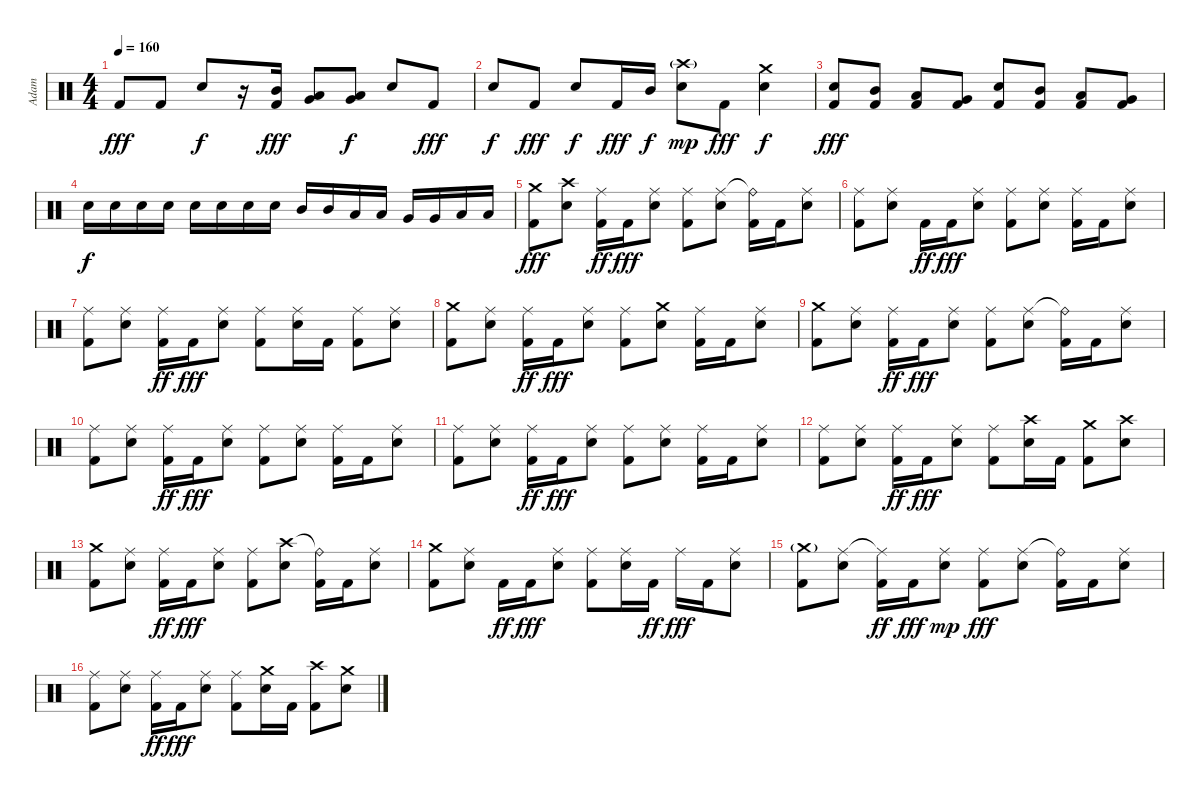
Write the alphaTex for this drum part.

\track ("Adam" "Adam") {instrument percussion}
\staff {score}
\articulation defaults
\ts (4 4)
\tempo 160
\clef neutral
\ks c "Kick (hit) 2".8{dy fff} "Kick (hit) 2".8 "Electric Snare (hit)".8{dy f}
r.16 ("Mid Tom (hit)" "Kick (hit) 2").16{dy fff} ("Low Tom (hit)" "Very Low Tom (hit)").8 ("Low Tom (hit)" "Very Low Tom (hit)").8{dy f} "Electric Snare (hit)".8 "Kick (hit) 2".8{dy fff} |
"Electric Snare (hit)".8{dy f} "Kick (hit) 2".8{dy fff} "Electric Snare (hit)".8{dy f} "Kick (hit) 2".16{dy fff} "Mid Tom (hit)".16{dy f} ("Crash high (hit)"{g} "Electric Snare (hit)").8{dy mp} "Kick (hit) 2".8{dy fff} ("Crash medium (hit)" "Electric Snare (hit)").4{dy f} |
("Electric Snare (hit)" "Kick (hit) 2").8{dy fff} ("Mid Tom (hit)" "Kick (hit) 2").8 ("Low Tom (hit)" "Kick (hit) 2").8 ("Very Low Tom (hit)" "Kick (hit) 2").8 ("Electric Snare (hit)" "Kick (hit) 2").8 ("Mid Tom (hit)" "Kick (hit) 2").8 ("Low Tom (hit)" "Kick (hit) 2").8 ("Very Low Tom (hit)" "Kick (hit) 2").8 |
"Electric Snare (hit)".16{dy f} "Electric Snare (hit)".16 "Electric Snare (hit)".16 "Electric Snare (hit)".16 "Electric Snare (hit)".16 "Electric Snare (hit)".16 "Electric Snare (hit)".16 "Electric Snare (hit)".16 "Mid Tom (hit)".16 "Mid Tom (hit)".16 "Low Tom (hit)".16 "Low Tom (hit)".16 "Very Low Tom (hit)".16 "Very Low Tom (hit)".16 "Low Floor Tom (hit)".16 "Low Floor Tom (hit)".16 |
("Crash medium (hit)" "Kick (hit) 2").8{dy fff} ("Crash high (hit)" "Electric Snare (hit)").8 ("Ride (middle)" "Kick (hit) 2").16{dy ff} "Kick (hit) 2".16{dy fff} ("Ride (middle)" "Electric Snare (hit)").8 ("Ride (middle)" "Kick (hit) 2").8 ("Ride (middle)" "Electric Snare (hit)").8 ("Ride (bell)"{t} "Kick (hit) 2").16 "Kick (hit) 2".16 ("Ride (middle)" "Electric Snare (hit)").8 |
("Ride (middle)" "Kick (hit) 2").8 ("Ride (middle)" "Electric Snare (hit)").8 "Kick (hit) 2".16{dy ff} "Kick (hit) 2".16{dy fff} ("Ride (middle)" "Electric Snare (hit)").8 ("Ride (middle)" "Kick (hit) 2").8 ("Ride (middle)" "Electric Snare (hit)").8 ("Ride (middle)" "Kick (hit) 2").16 "Kick (hit) 2".16 ("Ride (middle)" "Electric Snare (hit)").8 |
("Ride (middle)" "Kick (hit) 2").8 ("Ride (middle)" "Electric Snare (hit)").8 ("Ride (middle)" "Kick (hit) 2").16{dy ff} "Kick (hit) 2".16{dy fff} ("Ride (middle)" "Electric Snare (hit)").8 ("Ride (middle)" "Kick (hit) 2").8 ("Ride (middle)" "Electric Snare (hit)").16 "Kick (hit) 2".16 ("Ride (middle)" "Kick (hit) 2").8 ("Ride (middle)" "Electric Snare (hit)").8 |
("Crash medium (hit)" "Kick (hit) 2").8 ("Ride (middle)" "Electric Snare (hit)").8 ("Ride (middle)" "Kick (hit) 2").16{dy ff} "Kick (hit) 2".16{dy fff} ("Ride (middle)" "Electric Snare (hit)").8 ("Ride (middle)" "Kick (hit) 2").8 ("Crash medium (hit)" "Electric Snare (hit)").8 ("Ride (middle)" "Kick (hit) 2").16 "Kick (hit) 2".16 ("Ride (middle)" "Electric Snare (hit)").8 |
("Crash medium (hit)" "Kick (hit) 2").8 ("Ride (middle)" "Electric Snare (hit)").8 ("Ride (middle)" "Kick (hit) 2").16{dy ff} "Kick (hit) 2".16{dy fff} ("Ride (middle)" "Electric Snare (hit)").8 ("Ride (middle)" "Kick (hit) 2").8 ("Ride (middle)" "Electric Snare (hit)").8 ("Ride (bell)"{t} "Kick (hit) 2").16 "Kick (hit) 2".16 ("Ride (middle)" "Electric Snare (hit)").8 |
("Ride (middle)" "Kick (hit) 2").8 ("Ride (middle)" "Electric Snare (hit)").8 ("Ride (middle)" "Kick (hit) 2").16{dy ff} "Kick (hit) 2".16{dy fff} ("Ride (middle)" "Electric Snare (hit)").8 ("Ride (middle)" "Kick (hit) 2").8 ("Ride (middle)" "Electric Snare (hit)").8 ("Ride (middle)" "Kick (hit) 2").16 "Kick (hit) 2".16 ("Ride (middle)" "Electric Snare (hit)").8 |
("Ride (middle)" "Kick (hit) 2").8 ("Ride (middle)" "Electric Snare (hit)").8 ("Ride (middle)" "Kick (hit) 2").16{dy ff} "Kick (hit) 2".16{dy fff} ("Ride (middle)" "Electric Snare (hit)").8 ("Ride (middle)" "Kick (hit) 2").8 ("Ride (middle)" "Electric Snare (hit)").8 ("Ride (middle)" "Kick (hit) 2").16 "Kick (hit) 2".16 ("Ride (middle)" "Electric Snare (hit)").8 |
("Ride (middle)" "Kick (hit) 2").8 ("Ride (middle)" "Electric Snare (hit)").8 ("Ride (middle)" "Kick (hit) 2").16{dy ff} "Kick (hit) 2".16{dy fff} ("Ride (middle)" "Electric Snare (hit)").8 ("Ride (middle)" "Kick (hit) 2").8 ("Crash high (hit)" "Electric Snare (hit)").16 "Kick (hit) 2".16 ("Crash medium (hit)" "Kick (hit) 2").8 ("Crash high (hit)" "Electric Snare (hit)").8 |
("Crash medium (hit)" "Kick (hit) 2").8 ("Ride (middle)" "Electric Snare (hit)").8 ("Ride (middle)" "Kick (hit) 2").16{dy ff} "Kick (hit) 2".16{dy fff} ("Ride (middle)" "Electric Snare (hit)").8 ("Ride (middle)" "Kick (hit) 2").8 ("Crash high (hit)" "Electric Snare (hit)").8 ("Ride (bell)"{t} "Kick (hit) 2").16 "Kick (hit) 2".16 ("Ride (middle)" "Electric Snare (hit)").8 |
("Crash medium (hit)" "Kick (hit) 2").8 ("Ride (middle)" "Electric Snare (hit)").8 "Kick (hit) 2".16{dy ff} "Kick (hit) 2".16{dy fff} ("Ride (middle)" "Electric Snare (hit)").8 ("Ride (middle)" "Kick (hit) 2").8 ("Ride (middle)" "Electric Snare (hit)").16 "Kick (hit) 2".16{dy ff} "Ride (middle)".16{dy fff} "Kick (hit) 2".16 ("Ride (middle)" "Electric Snare (hit)").8 |
("Crash medium (hit)"{g} "Kick (hit) 2").8 ("Ride (middle)" "Electric Snare (hit)").8 ("Ride (middle)"{t} "Kick (hit) 2").16{dy ff} "Kick (hit) 2".16{dy fff} ("Ride (middle)" "Electric Snare (hit)").8{dy mp} ("Ride (middle)" "Kick (hit) 2").8{dy fff} ("Ride (middle)" "Electric Snare (hit)").8 ("Ride (bell)"{t} "Kick (hit) 2").16 "Kick (hit) 2".16 ("Ride (middle)" "Electric Snare (hit)").8 |
("Ride (middle)" "Kick (hit) 2").8 ("Ride (middle)" "Electric Snare (hit)").8 ("Ride (middle)" "Kick (hit) 2").16{dy ff} "Kick (hit) 2".16{dy fff} ("Ride (middle)" "Electric Snare (hit)").8 ("Ride (middle)" "Kick (hit) 2").8 ("Crash medium (hit)" "Electric Snare (hit)").16 "Kick (hit) 2".16 ("Crash high (hit)" "Kick (hit) 2").8 ("Crash medium (hit)" "Electric Snare (hit)").8
